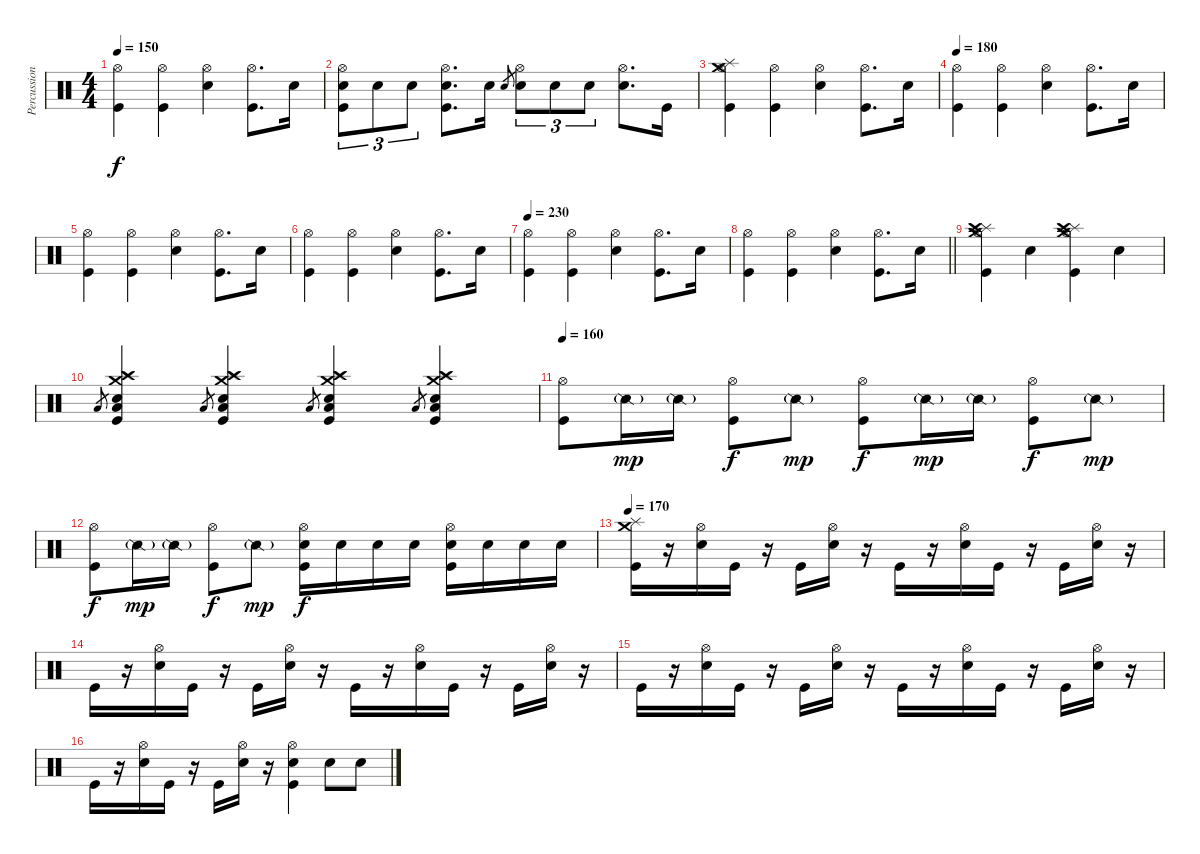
\track ("Percussion" "Percussion") {instrument percussion}
\staff
\articulation defaults
\ts (4 4)
\tempo 150
\clef neutral
\ks c
("Hi-Hat (open)" "Kick (hit)").4{dy f} ("Hi-Hat (open)" "Kick (hit)").4 ("Hi-Hat (open)" "Electric Snare (hit)").4 ("Hi-Hat (open)" "Kick (hit)").8{d} "Electric Snare (hit)".16 |
("Hi-Hat (open)" "Electric Snare (hit)" "Kick (hit)").8{tu (3 2)} "Electric Snare (hit)".8{tu (3 2)} "Electric Snare (hit)".8{tu (3 2)} ("Hi-Hat (open)" "Electric Snare (hit)" "Kick (hit)").8{d} "Electric Snare (hit)".16 "Electric Snare (hit)".8{gr} ("Hi-Hat (open)" "Electric Snare (hit)").8{tu (3 2)} "Electric Snare (hit)".8{tu (3 2)} "Electric Snare (hit)".8{tu (3 2)} ("Hi-Hat (open)" "Electric Snare (hit)").8{d} "Kick (hit)".16 |
("Crash medium (hit)" "Splash (hit)" "Hi-Hat (open)" "Kick (hit)").4 ("Hi-Hat (open)" "Kick (hit)").4 ("Hi-Hat (open)" "Electric Snare (hit)").4 ("Hi-Hat (open)" "Kick (hit)").8{d} "Electric Snare (hit)".16 |
\tempo 180
("Hi-Hat (open)" "Kick (hit)").4 ("Hi-Hat (open)" "Kick (hit)").4 ("Hi-Hat (open)" "Electric Snare (hit)").4 ("Hi-Hat (open)" "Kick (hit)").8{d} "Electric Snare (hit)".16 |
("Hi-Hat (open)" "Kick (hit)").4 ("Hi-Hat (open)" "Kick (hit)").4 ("Hi-Hat (open)" "Electric Snare (hit)").4 ("Hi-Hat (open)" "Kick (hit)").8{d} "Electric Snare (hit)".16 |
("Hi-Hat (open)" "Kick (hit)").4 ("Hi-Hat (open)" "Kick (hit)").4 ("Hi-Hat (open)" "Electric Snare (hit)").4 ("Hi-Hat (open)" "Kick (hit)").8{d} "Electric Snare (hit)".16 |
\tempo 230
("Hi-Hat (open)" "Kick (hit)").4 ("Hi-Hat (open)" "Kick (hit)").4 ("Hi-Hat (open)" "Electric Snare (hit)").4 ("Hi-Hat (open)" "Kick (hit)").8{d} "Electric Snare (hit)".16 |
\barLineRight lightlight
("Hi-Hat (open)" "Kick (hit)").4 ("Hi-Hat (open)" "Kick (hit)").4 ("Hi-Hat (open)" "Electric Snare (hit)").4 ("Hi-Hat (open)" "Kick (hit)").8{d} "Electric Snare (hit)".16 |
("Crash medium (hit)" "Splash (hit)" "Crash high (hit)" "Hi-Hat (open)" "Kick (hit)").4 "Electric Snare (hit)".4 ("Crash medium (hit)" "Splash (hit)" "Crash high (hit)" "Hi-Hat (open)" "Kick (hit)").4 "Electric Snare (hit)".4 |
"Low Tom (hit)".8{gr} ("Crash medium (hit)" "Splash (hit)" "Crash high (hit)" "Electric Snare (hit)" "Low Tom (hit)" "Kick (hit)").4 "Low Tom (hit)".8{gr} ("Crash medium (hit)" "Splash (hit)" "Crash high (hit)" "Electric Snare (hit)" "Low Tom (hit)" "Kick (hit)").4 "Low Tom (hit)".8{gr} ("Crash medium (hit)" "Splash (hit)" "Crash high (hit)" "Electric Snare (hit)" "Low Tom (hit)" "Kick (hit)").4 "Low Tom (hit)".8{gr} ("Crash medium (hit)" "Splash (hit)" "Crash high (hit)" "Electric Snare (hit)" "Low Tom (hit)" "Kick (hit)").4 |
\tempo 160
("Hi-Hat (open)" "Kick (hit)").8 "Snare (side stick) 2"{g}.16{dy mp} "Snare (side stick) 2"{g}.16 ("Hi-Hat (open)" "Kick (hit)").8{dy f} "Snare (side stick) 2"{g}.8{dy mp} ("Hi-Hat (open)" "Kick (hit)").8{dy f} "Snare (side stick) 2"{g}.16{dy mp} "Snare (side stick) 2"{g}.16 ("Hi-Hat (open)" "Kick (hit)").8{dy f} "Snare (side stick) 2"{g}.8{dy mp} |
("Hi-Hat (open)" "Kick (hit)").8{dy f} "Snare (side stick) 2"{g}.16{dy mp} "Snare (side stick) 2"{g}.16 ("Hi-Hat (open)" "Kick (hit)").8{dy f} "Snare (side stick) 2"{g}.8{dy mp} ("Hi-Hat (open)" "Electric Snare (hit)" "Kick (hit)").16{dy f volume 10} "Electric Snare (hit)".16{volume 16} "Electric Snare (hit)".16 "Electric Snare (hit)".16 ("Hi-Hat (open)" "Electric Snare (hit)" "Kick (hit)").16 "Electric Snare (hit)".16 "Electric Snare (hit)".16 "Electric Snare (hit)".16 |
\tempo 170
("Crash medium (hit)" "Splash (hit)" "Kick (hit)").16 r.16 ("Hi-Hat (open)" "Electric Snare (hit)").16 "Kick (hit)".16 r.16 "Kick (hit)".16 ("Hi-Hat (open)" "Electric Snare (hit)").16 r.16 "Kick (hit)".16 r.16 ("Hi-Hat (open)" "Electric Snare (hit)").16 "Kick (hit)".16 r.16 "Kick (hit)".16 ("Hi-Hat (open)" "Electric Snare (hit)").16 r.16 |
"Kick (hit)".16 r.16 ("Hi-Hat (open)" "Electric Snare (hit)").16 "Kick (hit)".16 r.16 "Kick (hit)".16 ("Hi-Hat (open)" "Electric Snare (hit)").16 r.16 "Kick (hit)".16 r.16 ("Hi-Hat (open)" "Electric Snare (hit)").16 "Kick (hit)".16 r.16 "Kick (hit)".16 ("Hi-Hat (open)" "Electric Snare (hit)").16 r.16 |
"Kick (hit)".16 r.16 ("Hi-Hat (open)" "Electric Snare (hit)").16 "Kick (hit)".16 r.16 "Kick (hit)".16 ("Hi-Hat (open)" "Electric Snare (hit)").16 r.16 "Kick (hit)".16 r.16 ("Hi-Hat (open)" "Electric Snare (hit)").16 "Kick (hit)".16 r.16 "Kick (hit)".16 ("Hi-Hat (open)" "Electric Snare (hit)").16 r.16 |
"Kick (hit)".16 r.16 ("Hi-Hat (open)" "Electric Snare (hit)").16 "Kick (hit)".16 r.16 "Kick (hit)".16 ("Hi-Hat (open)" "Electric Snare (hit)").16 r.16 ("Hi-Hat (open)" "Electric Snare (hit)" "Kick (hit)").4 "Electric Snare (hit)".8 "Electric Snare (hit)".8
